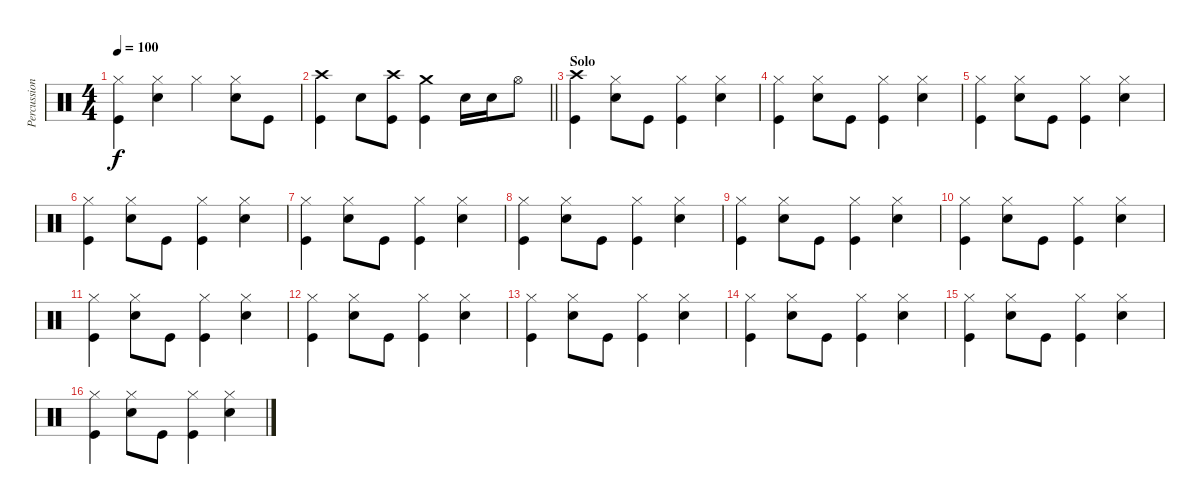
\track ("Percussion" "Percussion") {instrument percussion}
\staff {score}
\articulation defaults
\ts (4 4)
\tempo 100
\clef neutral
\ks c
("Hi-Hat (closed)" "Kick (hit)").4{dy f} ("Hi-Hat (closed)" "Snare (hit) 2").4 "Hi-Hat (closed)".4 ("Hi-Hat (closed)" "Snare (hit) 2").8 "Kick (hit)".8 |
\barLineRight lightlight
("Kick (hit)" "Crash high (hit)").4 "Snare (hit) 2".8 ("Kick (hit)" "Crash high (hit)").8 ("Kick (hit)" "Crash medium (hit)").4 "Snare (hit) 2".16 "Snare (hit) 2".16 "Hi-Hat (open)".8 |
\section ("" "Solo")
("Crash high (hit)" "Kick (hit)").4 ("Hi-Hat (closed)" "Snare (hit) 2").8 "Kick (hit)".8 ("Hi-Hat (closed)" "Kick (hit)").4 ("Snare (hit) 2" "Hi-Hat (closed)").4 |
("Hi-Hat (closed)" "Kick (hit)").4 ("Hi-Hat (closed)" "Snare (hit) 2").8 "Kick (hit)".8 ("Hi-Hat (closed)" "Kick (hit)").4 ("Snare (hit) 2" "Hi-Hat (closed)").4 |
("Hi-Hat (closed)" "Kick (hit)").4 ("Hi-Hat (closed)" "Snare (hit) 2").8 "Kick (hit)".8 ("Hi-Hat (closed)" "Kick (hit)").4 ("Snare (hit) 2" "Hi-Hat (closed)").4 |
("Hi-Hat (closed)" "Kick (hit)").4 ("Hi-Hat (closed)" "Snare (hit) 2").8 "Kick (hit)".8 ("Hi-Hat (closed)" "Kick (hit)").4 ("Snare (hit) 2" "Hi-Hat (closed)").4 |
("Hi-Hat (closed)" "Kick (hit)").4 ("Hi-Hat (closed)" "Snare (hit) 2").8 "Kick (hit)".8 ("Hi-Hat (closed)" "Kick (hit)").4 ("Snare (hit) 2" "Hi-Hat (closed)").4 |
("Hi-Hat (closed)" "Kick (hit)").4 ("Hi-Hat (closed)" "Snare (hit) 2").8 "Kick (hit)".8 ("Hi-Hat (closed)" "Kick (hit)").4 ("Snare (hit) 2" "Hi-Hat (closed)").4 |
("Hi-Hat (closed)" "Kick (hit)").4 ("Hi-Hat (closed)" "Snare (hit) 2").8 "Kick (hit)".8 ("Hi-Hat (closed)" "Kick (hit)").4 ("Snare (hit) 2" "Hi-Hat (closed)").4 |
("Hi-Hat (closed)" "Kick (hit)").4 ("Hi-Hat (closed)" "Snare (hit) 2").8 "Kick (hit)".8 ("Hi-Hat (closed)" "Kick (hit)").4 ("Snare (hit) 2" "Hi-Hat (closed)").4 |
("Hi-Hat (closed)" "Kick (hit)").4 ("Hi-Hat (closed)" "Snare (hit) 2").8 "Kick (hit)".8 ("Hi-Hat (closed)" "Kick (hit)").4 ("Snare (hit) 2" "Hi-Hat (closed)").4 |
("Hi-Hat (closed)" "Kick (hit)").4 ("Hi-Hat (closed)" "Snare (hit) 2").8 "Kick (hit)".8 ("Hi-Hat (closed)" "Kick (hit)").4 ("Snare (hit) 2" "Hi-Hat (closed)").4 |
("Hi-Hat (closed)" "Kick (hit)").4 ("Hi-Hat (closed)" "Snare (hit) 2").8 "Kick (hit)".8 ("Hi-Hat (closed)" "Kick (hit)").4 ("Snare (hit) 2" "Hi-Hat (closed)").4 |
("Hi-Hat (closed)" "Kick (hit)").4 ("Hi-Hat (closed)" "Snare (hit) 2").8 "Kick (hit)".8 ("Hi-Hat (closed)" "Kick (hit)").4 ("Snare (hit) 2" "Hi-Hat (closed)").4 |
("Hi-Hat (closed)" "Kick (hit)").4 ("Hi-Hat (closed)" "Snare (hit) 2").8 "Kick (hit)".8 ("Hi-Hat (closed)" "Kick (hit)").4 ("Snare (hit) 2" "Hi-Hat (closed)").4 |
("Hi-Hat (closed)" "Kick (hit)").4 ("Hi-Hat (closed)" "Snare (hit) 2").8 "Kick (hit)".8 ("Hi-Hat (closed)" "Kick (hit)").4 ("Snare (hit) 2" "Hi-Hat (closed)").4
